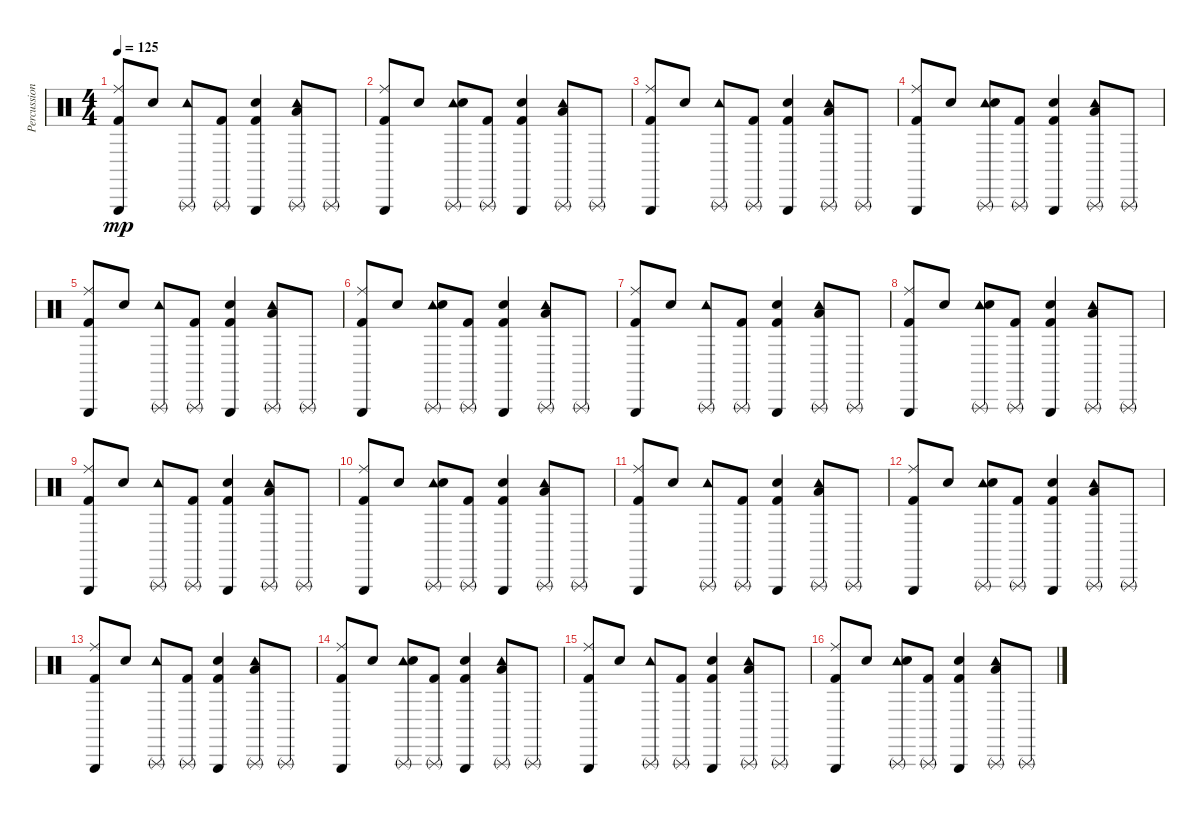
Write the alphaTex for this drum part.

\track ("Percussion" "Percussion") {instrument percussion}
\staff {score}
\articulation defaults
\ts (4 4)
\tempo 125
\clef neutral
\ks c
("Triangle (hit)" "Ride (middle)" "Kick (hit) 2").8{dy mp} "Snare (hit) 2".8 ("Triangle (rnute)" "Tambourine (hit)").8 ("Triangle (rnute)" "Kick (hit) 2").8 ("Triangle (hit)" "Kick (hit) 2" "Snare (hit) 2").4 ("Tambourine (hit)" "Low Tom (hit)" "Triangle (rnute)").8 "Triangle (rnute)".8 |
("Triangle (hit)" "Ride (middle)" "Kick (hit) 2").8 "Snare (hit) 2".8 ("Triangle (rnute)" "Tambourine (hit)" "Snare (hit) 2").8 ("Triangle (rnute)" "Kick (hit) 2").8 ("Triangle (hit)" "Kick (hit) 2" "Snare (hit) 2").4 ("Tambourine (hit)" "Low Tom (hit)" "Triangle (rnute)").8 "Triangle (rnute)".8 |
("Triangle (hit)" "Ride (middle)" "Kick (hit) 2").8 "Snare (hit) 2".8 ("Triangle (rnute)" "Tambourine (hit)").8 ("Triangle (rnute)" "Kick (hit) 2").8 ("Triangle (hit)" "Kick (hit) 2" "Snare (hit) 2").4 ("Tambourine (hit)" "Low Tom (hit)" "Triangle (rnute)").8 "Triangle (rnute)".8 |
("Triangle (hit)" "Ride (middle)" "Kick (hit) 2").8 "Snare (hit) 2".8 ("Triangle (rnute)" "Tambourine (hit)" "Snare (hit) 2").8 ("Triangle (rnute)" "Kick (hit) 2").8 ("Triangle (hit)" "Kick (hit) 2" "Snare (hit) 2").4 ("Tambourine (hit)" "Low Tom (hit)" "Triangle (rnute)").8 "Triangle (rnute)".8 |
("Triangle (hit)" "Ride (middle)" "Kick (hit) 2").8 "Snare (hit) 2".8 ("Triangle (rnute)" "Tambourine (hit)").8 ("Triangle (rnute)" "Kick (hit) 2").8 ("Triangle (hit)" "Kick (hit) 2" "Snare (hit) 2").4 ("Tambourine (hit)" "Low Tom (hit)" "Triangle (rnute)").8 "Triangle (rnute)".8 |
("Triangle (hit)" "Ride (middle)" "Kick (hit) 2").8 "Snare (hit) 2".8 ("Triangle (rnute)" "Tambourine (hit)" "Snare (hit) 2").8 ("Triangle (rnute)" "Kick (hit) 2").8 ("Triangle (hit)" "Kick (hit) 2" "Snare (hit) 2").4 ("Tambourine (hit)" "Low Tom (hit)" "Triangle (rnute)").8 "Triangle (rnute)".8 |
("Triangle (hit)" "Ride (middle)" "Kick (hit) 2").8 "Snare (hit) 2".8 ("Triangle (rnute)" "Tambourine (hit)").8 ("Triangle (rnute)" "Kick (hit) 2").8 ("Triangle (hit)" "Kick (hit) 2" "Snare (hit) 2").4 ("Tambourine (hit)" "Low Tom (hit)" "Triangle (rnute)").8 "Triangle (rnute)".8 |
("Triangle (hit)" "Ride (middle)" "Kick (hit) 2").8 "Snare (hit) 2".8 ("Triangle (rnute)" "Tambourine (hit)" "Snare (hit) 2").8 ("Triangle (rnute)" "Kick (hit) 2").8 ("Triangle (hit)" "Kick (hit) 2" "Snare (hit) 2").4 ("Tambourine (hit)" "Low Tom (hit)" "Triangle (rnute)").8 "Triangle (rnute)".8 |
("Triangle (hit)" "Ride (middle)" "Kick (hit) 2").8 "Snare (hit) 2".8 ("Triangle (rnute)" "Tambourine (hit)").8 ("Triangle (rnute)" "Kick (hit) 2").8 ("Triangle (hit)" "Kick (hit) 2" "Snare (hit) 2").4 ("Tambourine (hit)" "Low Tom (hit)" "Triangle (rnute)").8 "Triangle (rnute)".8 |
("Triangle (hit)" "Ride (middle)" "Kick (hit) 2").8 "Snare (hit) 2".8 ("Triangle (rnute)" "Tambourine (hit)" "Snare (hit) 2").8 ("Triangle (rnute)" "Kick (hit) 2").8 ("Triangle (hit)" "Kick (hit) 2" "Snare (hit) 2").4 ("Tambourine (hit)" "Low Tom (hit)" "Triangle (rnute)").8 "Triangle (rnute)".8 |
("Triangle (hit)" "Ride (middle)" "Kick (hit) 2").8 "Snare (hit) 2".8 ("Triangle (rnute)" "Tambourine (hit)").8 ("Triangle (rnute)" "Kick (hit) 2").8 ("Triangle (hit)" "Kick (hit) 2" "Snare (hit) 2").4 ("Tambourine (hit)" "Low Tom (hit)" "Triangle (rnute)").8 "Triangle (rnute)".8 |
("Triangle (hit)" "Ride (middle)" "Kick (hit) 2").8 "Snare (hit) 2".8 ("Triangle (rnute)" "Tambourine (hit)" "Snare (hit) 2").8 ("Triangle (rnute)" "Kick (hit) 2").8 ("Triangle (hit)" "Kick (hit) 2" "Snare (hit) 2").4 ("Tambourine (hit)" "Low Tom (hit)" "Triangle (rnute)").8 "Triangle (rnute)".8 |
("Triangle (hit)" "Ride (middle)" "Kick (hit) 2").8 "Snare (hit) 2".8 ("Triangle (rnute)" "Tambourine (hit)").8 ("Triangle (rnute)" "Kick (hit) 2").8 ("Triangle (hit)" "Kick (hit) 2" "Snare (hit) 2").4 ("Tambourine (hit)" "Low Tom (hit)" "Triangle (rnute)").8 "Triangle (rnute)".8 |
("Triangle (hit)" "Ride (middle)" "Kick (hit) 2").8 "Snare (hit) 2".8 ("Triangle (rnute)" "Tambourine (hit)" "Snare (hit) 2").8 ("Triangle (rnute)" "Kick (hit) 2").8 ("Triangle (hit)" "Kick (hit) 2" "Snare (hit) 2").4 ("Tambourine (hit)" "Low Tom (hit)" "Triangle (rnute)").8 "Triangle (rnute)".8 |
("Triangle (hit)" "Ride (middle)" "Kick (hit) 2").8 "Snare (hit) 2".8 ("Triangle (rnute)" "Tambourine (hit)").8 ("Triangle (rnute)" "Kick (hit) 2").8 ("Triangle (hit)" "Kick (hit) 2" "Snare (hit) 2").4 ("Tambourine (hit)" "Low Tom (hit)" "Triangle (rnute)").8 "Triangle (rnute)".8 |
("Triangle (hit)" "Ride (middle)" "Kick (hit) 2").8 "Snare (hit) 2".8 ("Triangle (rnute)" "Tambourine (hit)" "Snare (hit) 2").8 ("Triangle (rnute)" "Kick (hit) 2").8 ("Triangle (hit)" "Kick (hit) 2" "Snare (hit) 2").4 ("Tambourine (hit)" "Low Tom (hit)" "Triangle (rnute)").8 "Triangle (rnute)".8
